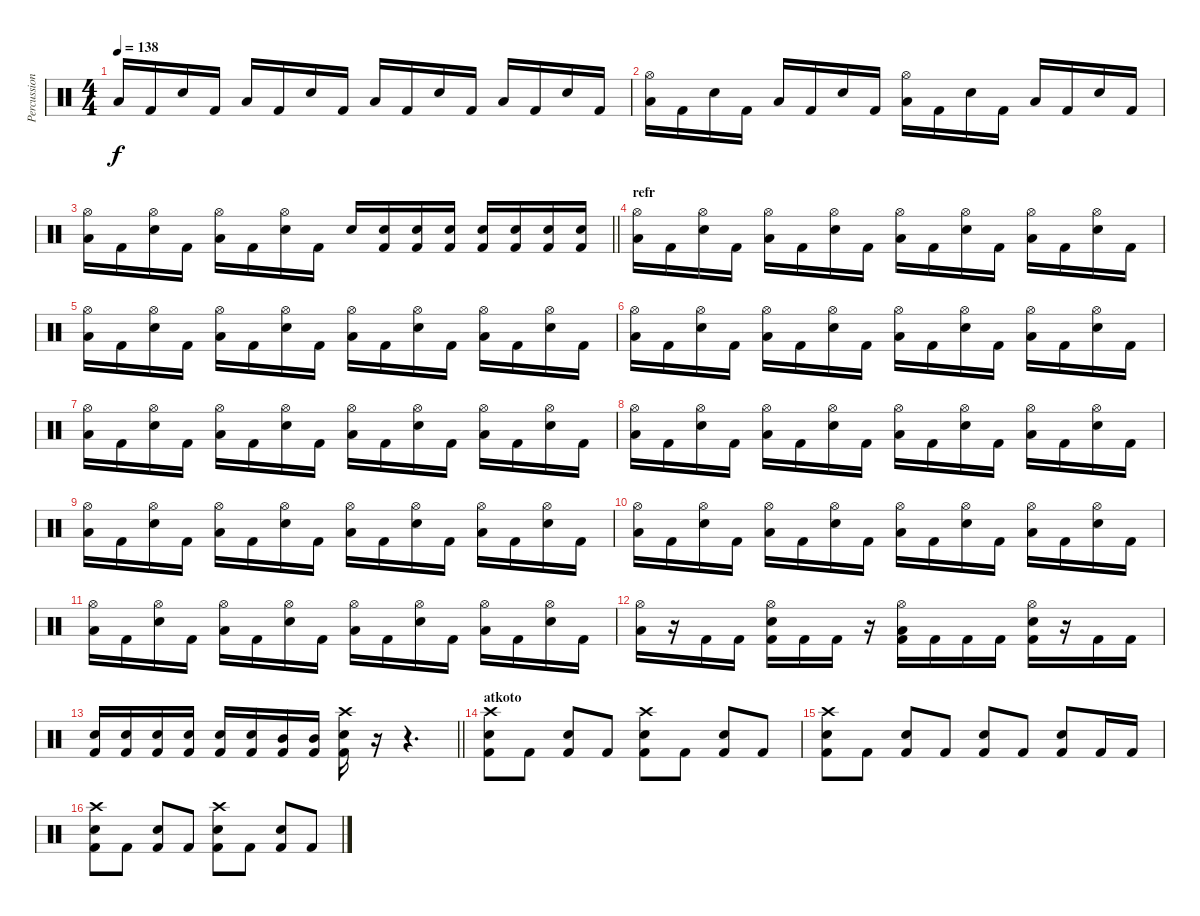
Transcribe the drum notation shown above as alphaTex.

\track ("Percussion" "Percussion") {instrument percussion}
\staff {score}
\articulation defaults
\ts (4 4)
\tempo 138
\clef neutral
\ks c "Low Tom (hit)".16{dy f} "Kick (hit) 2".16 "Snare (hit) 2".16 "Kick (hit) 2".16 "Low Tom (hit)".16 "Kick (hit) 2".16 "Snare (hit) 2".16 "Kick (hit) 2".16 "Low Tom (hit)".16 "Kick (hit) 2".16 "Snare (hit) 2".16 "Kick (hit) 2".16 "Low Tom (hit)".16 "Kick (hit) 2".16 "Snare (hit) 2".16 "Kick (hit) 2".16
|
("Hi-Hat (open)" "Low Tom (hit)").16 "Kick (hit) 2".16 "Snare (hit) 2".16 "Kick (hit) 2".16 "Low Tom (hit)".16 "Kick (hit) 2".16 "Snare (hit) 2".16 "Kick (hit) 2".16 ("Hi-Hat (open)" "Low Tom (hit)").16 "Kick (hit) 2".16 "Snare (hit) 2".16 "Kick (hit) 2".16 "Low Tom (hit)".16 "Kick (hit) 2".16 "Snare (hit) 2".16 "Kick (hit) 2".16 |
\barLineRight lightlight
("Hi-Hat (open)" "Low Tom (hit)").16 "Kick (hit) 2".16 ("Hi-Hat (open)" "Snare (hit) 2").16 "Kick (hit) 2".16 ("Hi-Hat (open)" "Low Tom (hit)").16 "Kick (hit) 2".16 ("Hi-Hat (open)" "Snare (hit) 2").16 "Kick (hit) 2".16 "Snare (hit) 2".16 ("Snare (hit) 2" "Kick (hit) 2").16 ("Snare (hit) 2" "Kick (hit) 2").16 ("Snare (hit) 2" "Kick (hit) 2").16 ("Snare (hit) 2" "Kick (hit) 2").16 ("Snare (hit) 2" "Kick (hit) 2").16 ("Snare (hit) 2" "Kick (hit) 2").16 ("Snare (hit) 2" "Kick (hit) 2").16 |
\section ("" "refr")
("Hi-Hat (open)" "Low Tom (hit)").16 "Kick (hit) 2".16 ("Hi-Hat (open)" "Snare (hit) 2").16 "Kick (hit) 2".16 ("Hi-Hat (open)" "Low Tom (hit)").16 "Kick (hit) 2".16 ("Hi-Hat (open)" "Snare (hit) 2").16 "Kick (hit) 2".16 ("Hi-Hat (open)" "Low Tom (hit)").16 "Kick (hit) 2".16 ("Hi-Hat (open)" "Snare (hit) 2").16 "Kick (hit) 2".16 ("Hi-Hat (open)" "Low Tom (hit)").16 "Kick (hit) 2".16 ("Hi-Hat (open)" "Snare (hit) 2").16 "Kick (hit) 2".16 |
("Hi-Hat (open)" "Low Tom (hit)").16 "Kick (hit) 2".16 ("Hi-Hat (open)" "Snare (hit) 2").16 "Kick (hit) 2".16 ("Hi-Hat (open)" "Low Tom (hit)").16 "Kick (hit) 2".16 ("Hi-Hat (open)" "Snare (hit) 2").16 "Kick (hit) 2".16 ("Hi-Hat (open)" "Low Tom (hit)").16 "Kick (hit) 2".16 ("Hi-Hat (open)" "Snare (hit) 2").16 "Kick (hit) 2".16 ("Hi-Hat (open)" "Low Tom (hit)").16 "Kick (hit) 2".16 ("Hi-Hat (open)" "Snare (hit) 2").16 "Kick (hit) 2".16 |
("Hi-Hat (open)" "Low Tom (hit)").16 "Kick (hit) 2".16 ("Hi-Hat (open)" "Snare (hit) 2").16 "Kick (hit) 2".16 ("Hi-Hat (open)" "Low Tom (hit)").16 "Kick (hit) 2".16 ("Hi-Hat (open)" "Snare (hit) 2").16 "Kick (hit) 2".16 ("Hi-Hat (open)" "Low Tom (hit)").16 "Kick (hit) 2".16 ("Hi-Hat (open)" "Snare (hit) 2").16 "Kick (hit) 2".16 ("Hi-Hat (open)" "Low Tom (hit)").16 "Kick (hit) 2".16 ("Hi-Hat (open)" "Snare (hit) 2").16 "Kick (hit) 2".16 |
("Hi-Hat (open)" "Low Tom (hit)").16 "Kick (hit) 2".16 ("Hi-Hat (open)" "Snare (hit) 2").16 "Kick (hit) 2".16 ("Hi-Hat (open)" "Low Tom (hit)").16 "Kick (hit) 2".16 ("Hi-Hat (open)" "Snare (hit) 2").16 "Kick (hit) 2".16 ("Hi-Hat (open)" "Low Tom (hit)").16 "Kick (hit) 2".16 ("Hi-Hat (open)" "Snare (hit) 2").16 "Kick (hit) 2".16 ("Hi-Hat (open)" "Low Tom (hit)").16 "Kick (hit) 2".16 ("Hi-Hat (open)" "Snare (hit) 2").16 "Kick (hit) 2".16 |
("Hi-Hat (open)" "Low Tom (hit)").16 "Kick (hit) 2".16 ("Hi-Hat (open)" "Snare (hit) 2").16 "Kick (hit) 2".16 ("Hi-Hat (open)" "Low Tom (hit)").16 "Kick (hit) 2".16 ("Hi-Hat (open)" "Snare (hit) 2").16 "Kick (hit) 2".16 ("Hi-Hat (open)" "Low Tom (hit)").16 "Kick (hit) 2".16 ("Hi-Hat (open)" "Snare (hit) 2").16 "Kick (hit) 2".16 ("Hi-Hat (open)" "Low Tom (hit)").16 "Kick (hit) 2".16 ("Hi-Hat (open)" "Snare (hit) 2").16 "Kick (hit) 2".16 |
("Hi-Hat (open)" "Low Tom (hit)").16 "Kick (hit) 2".16 ("Hi-Hat (open)" "Snare (hit) 2").16 "Kick (hit) 2".16 ("Hi-Hat (open)" "Low Tom (hit)").16 "Kick (hit) 2".16 ("Hi-Hat (open)" "Snare (hit) 2").16 "Kick (hit) 2".16 ("Hi-Hat (open)" "Low Tom (hit)").16 "Kick (hit) 2".16 ("Hi-Hat (open)" "Snare (hit) 2").16 "Kick (hit) 2".16 ("Hi-Hat (open)" "Low Tom (hit)").16 "Kick (hit) 2".16 ("Hi-Hat (open)" "Snare (hit) 2").16 "Kick (hit) 2".16 |
("Hi-Hat (open)" "Low Tom (hit)").16 "Kick (hit) 2".16 ("Hi-Hat (open)" "Snare (hit) 2").16 "Kick (hit) 2".16 ("Hi-Hat (open)" "Low Tom (hit)").16 "Kick (hit) 2".16 ("Hi-Hat (open)" "Snare (hit) 2").16 "Kick (hit) 2".16 ("Hi-Hat (open)" "Low Tom (hit)").16 "Kick (hit) 2".16 ("Hi-Hat (open)" "Snare (hit) 2").16 "Kick (hit) 2".16 ("Hi-Hat (open)" "Low Tom (hit)").16 "Kick (hit) 2".16 ("Hi-Hat (open)" "Snare (hit) 2").16 "Kick (hit) 2".16 |
("Hi-Hat (open)" "Low Tom (hit)").16 "Kick (hit) 2".16 ("Hi-Hat (open)" "Snare (hit) 2").16 "Kick (hit) 2".16 ("Hi-Hat (open)" "Low Tom (hit)").16 "Kick (hit) 2".16 ("Hi-Hat (open)" "Snare (hit) 2").16 "Kick (hit) 2".16 ("Hi-Hat (open)" "Low Tom (hit)").16 "Kick (hit) 2".16 ("Hi-Hat (open)" "Snare (hit) 2").16 "Kick (hit) 2".16 ("Hi-Hat (open)" "Low Tom (hit)").16 "Kick (hit) 2".16 ("Hi-Hat (open)" "Snare (hit) 2").16 "Kick (hit) 2".16 |
("Hi-Hat (open)" "Low Tom (hit)").16 r.16 "Kick (hit) 2".16 "Kick (hit) 2".16 ("Hi-Hat (open)" "Snare (hit) 2" "Kick (hit) 2").16 "Kick (hit) 2".16 "Kick (hit) 2".16 r.16 ("Hi-Hat (open)" "Low Tom (hit)" "Kick (hit) 2").16 "Kick (hit) 2".16 "Kick (hit) 2".16 "Kick (hit) 2".16 ("Hi-Hat (open)" "Snare (hit) 2" "Kick (hit) 2").16 r.16 "Kick (hit) 2".16 "Kick (hit) 2".16 |
\barLineRight lightlight
("Snare (hit) 2" "Kick (hit) 2").16 ("Snare (hit) 2" "Kick (hit) 2").16 ("Snare (hit) 2" "Kick (hit) 2").16 ("Snare (hit) 2" "Kick (hit) 2").16 ("Snare (hit) 2" "Kick (hit) 2").16 ("Snare (hit) 2" "Kick (hit) 2").16 ("Mid Tom (hit)" "Kick (hit) 2").16 ("Mid Tom (hit)" "Kick (hit) 2").16 ("Crash high (hit)" "Snare (hit) 2" "Kick (hit) 2").16 r.16 r.4{d} |
\section ("" "atkoto")
("Crash high (hit)" "Snare (hit) 2" "Kick (hit) 2").8 "Kick (hit) 2".8 ("Snare (hit) 2" "Kick (hit) 2").8 "Kick (hit) 2".8 ("Crash high (hit)" "Snare (hit) 2" "Kick (hit) 2").8 "Kick (hit) 2".8 ("Snare (hit) 2" "Kick (hit) 2").8 "Kick (hit) 2".8 |
("Crash high (hit)" "Snare (hit) 2" "Kick (hit) 2").8 "Kick (hit) 2".8 ("Snare (hit) 2" "Kick (hit) 2").8 "Kick (hit) 2".8 ("Snare (hit) 2" "Kick (hit) 2").8 "Kick (hit) 2".8 ("Snare (hit) 2" "Kick (hit) 2").8 "Kick (hit) 2".16 "Kick (hit) 2".16 |
("Crash high (hit)" "Snare (hit) 2" "Kick (hit) 2").8 "Kick (hit) 2".8 ("Snare (hit) 2" "Kick (hit) 2").8 "Kick (hit) 2".8 ("Crash high (hit)" "Snare (hit) 2" "Kick (hit) 2").8 "Kick (hit) 2".8 ("Snare (hit) 2" "Kick (hit) 2").8 "Kick (hit) 2".8
